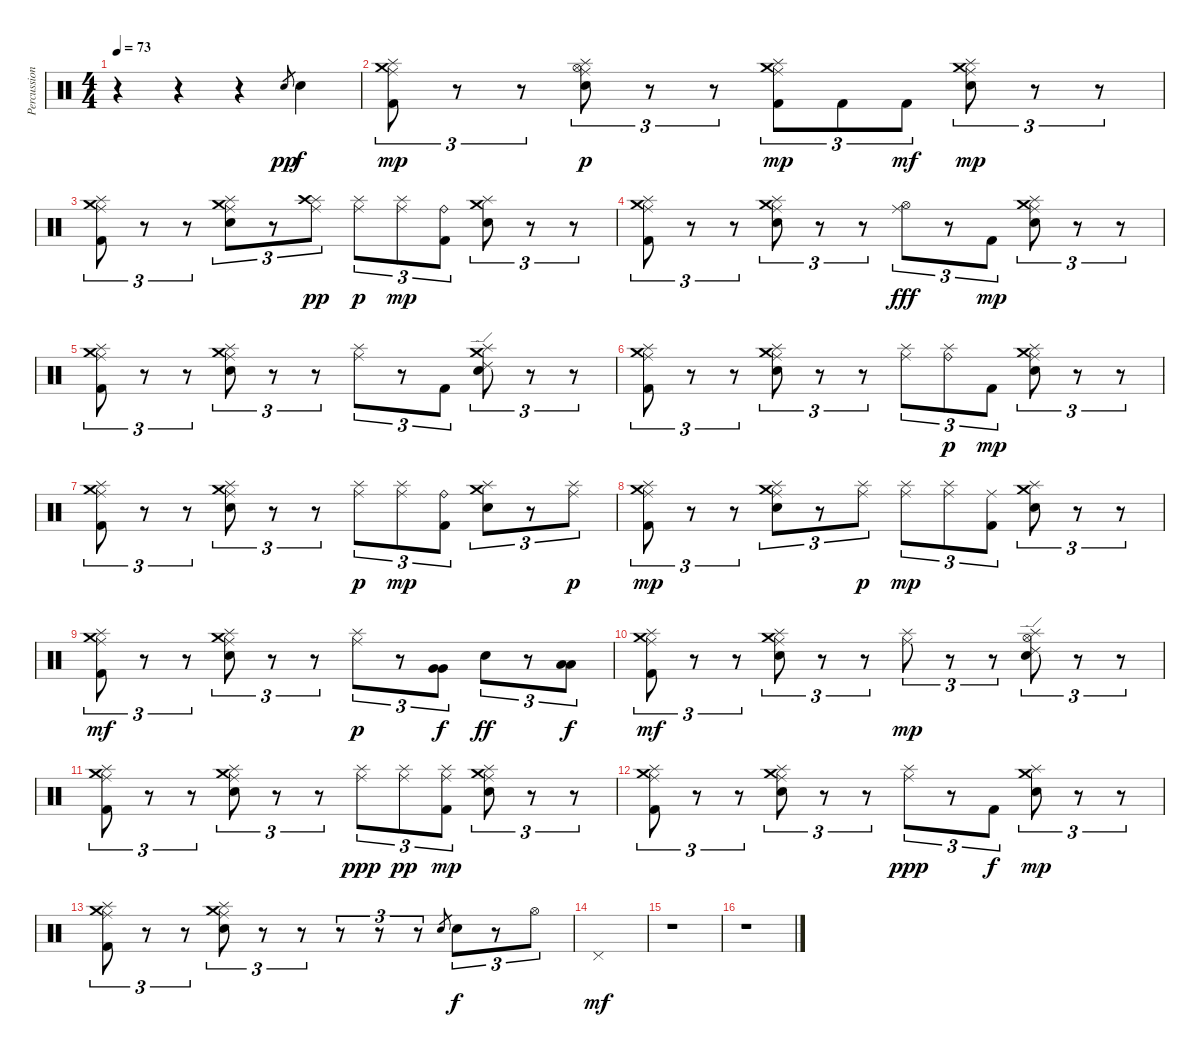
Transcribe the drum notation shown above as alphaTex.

\track ("Percussion" "Percussion") {instrument percussion}
\staff {score}
\articulation defaults
\ts (4 4)
\tempo 73
\clef neutral
\ks c
r.4{dy pp} r.4 r.4 "Snare (hit) 2".8{gr} "Electric Snare (hit)".4{dy f} |
("Splash (hit)" "Crash medium (hit)" "Kick (hit) 2" "Ride (middle)").8{tu (3 2) dy mp} r.8{tu (3 2)} r.8{tu (3 2)} ("Splash (hit)" "Hi-Hat (open)" "Electric Snare (hit)" "Ride (middle)").8{tu (3 2) dy p} r.8{tu (3 2)} r.8{tu (3 2)} ("Splash (hit)" "Crash medium (hit)" "Kick (hit) 2" "Ride (middle)").8{tu (3 2) dy mp} "Kick (hit) 2".8{tu (3 2)} "Kick (hit) 2".8{tu (3 2) dy mf} ("Splash (hit)" "Crash medium (hit)" "Electric Snare (hit)" "Ride (middle)").8{tu (3 2) dy mp} r.8{tu (3 2)} r.8{tu (3 2)} |
("Splash (hit)" "Crash medium (hit)" "Kick (hit) 2" "Ride (middle)").8{tu (3 2)} r.8{tu (3 2)} r.8{tu (3 2)} ("Splash (hit)" "Crash medium (hit)" "Electric Snare (hit)" "Ride (middle)").8{tu (3 2)} r.8{tu (3 2)} ("Ride (middle)" "Splash (hit)" "Crash high (hit)").8{tu (3 2) dy pp} ("Ride (middle)" "Splash (hit)").8{tu (3 2) dy p} ("Ride (middle)" "Splash (hit)").8{tu (3 2) dy mp} ("Ride (bell)" "Kick (hit) 2").8{tu (3 2)} ("Splash (hit)" "Crash medium (hit)" "Electric Snare (hit)").8{tu (3 2)} r.8{tu (3 2)} r.8{tu (3 2)} |
("Splash (hit)" "Crash medium (hit)" "Kick (hit) 2" "Ride (middle)").8{tu (3 2)} r.8{tu (3 2)} r.8{tu (3 2)} ("Splash (hit)" "Crash medium (hit)" "Electric Snare (hit)" "Ride (middle)").8{tu (3 2)} r.8{tu (3 2)} r.8{tu (3 2)} ("Ride (middle)" "Hi-Hat (open)").8{tu (3 2) dy fff} r.8{tu (3 2)} "Kick (hit) 2".8{tu (3 2) dy mp} ("Splash (hit)" "Crash medium (hit)" "Electric Snare (hit)" "Ride (middle)").8{tu (3 2)} r.8{tu (3 2)} r.8{tu (3 2)} |
("Splash (hit)" "Crash medium (hit)" "Kick (hit) 2" "Ride (middle)").8{tu (3 2)} r.8{tu (3 2)} r.8{tu (3 2)} ("Splash (hit)" "Crash medium (hit)" "Electric Snare (hit)" "Ride (middle)").8{tu (3 2)} r.8{tu (3 2)} r.8{tu (3 2)} ("Ride (middle)" "Splash (hit)").8{tu (3 2)} r.8{tu (3 2)} "Kick (hit) 2".8{tu (3 2)} ("Splash (hit)" "Crash medium (hit)" "Electric Snare (hit)" "Ride (edge) 2").8{tu (3 2)} r.8{tu (3 2)} r.8{tu (3 2)} |
("Splash (hit)" "Crash medium (hit)" "Kick (hit) 2" "Ride (middle)").8{tu (3 2)} r.8{tu (3 2)} r.8{tu (3 2)} ("Splash (hit)" "Crash medium (hit)" "Electric Snare (hit)" "Ride (middle)").8{tu (3 2)} r.8{tu (3 2)} r.8{tu (3 2)} ("Ride (middle)" "Splash (hit)").8{tu (3 2)} ("Ride (bell)" "Splash (hit)").8{tu (3 2) dy p} "Kick (hit) 2".8{tu (3 2) dy mp} ("Splash (hit)" "Crash medium (hit)" "Electric Snare (hit)" "Ride (middle)").8{tu (3 2)} r.8{tu (3 2)} r.8{tu (3 2)} |
("Splash (hit)" "Crash medium (hit)" "Kick (hit) 2" "Ride (middle)").8{tu (3 2)} r.8{tu (3 2)} r.8{tu (3 2)} ("Splash (hit)" "Crash medium (hit)" "Electric Snare (hit)" "Ride (middle)").8{tu (3 2)} r.8{tu (3 2)} r.8{tu (3 2)} ("Ride (middle)" "Splash (hit)").8{tu (3 2) dy p} ("Ride (middle)" "Splash (hit)").8{tu (3 2) dy mp} ("Ride (bell)" "Kick (hit) 2").8{tu (3 2)} ("Splash (hit)" "Crash medium (hit)" "Electric Snare (hit)").8{tu (3 2)} r.8{tu (3 2)} ("Ride (middle)" "Splash (hit)").8{tu (3 2) dy p} |
("Splash (hit)" "Crash medium (hit)" "Kick (hit) 2" "Ride (middle)").8{tu (3 2) dy mp} r.8{tu (3 2)} r.8{tu (3 2)} ("Splash (hit)" "Crash medium (hit)" "Electric Snare (hit)" "Ride (middle)").8{tu (3 2)} r.8{tu (3 2)} ("Ride (middle)" "Splash (hit)").8{tu (3 2) dy p} ("Ride (middle)" "Splash (hit)").8{tu (3 2) dy mp} ("Ride (middle)" "Splash (hit)").8{tu (3 2)} ("Ride (middle)" "Kick (hit) 2").8{tu (3 2)} ("Splash (hit)" "Crash medium (hit)" "Electric Snare (hit)").8{tu (3 2)} r.8{tu (3 2)} r.8{tu (3 2)} |
("Splash (hit)" "Crash medium (hit)" "Kick (hit) 2" "Ride (middle)").8{tu (3 2) dy mf} r.8{tu (3 2)} r.8{tu (3 2)} ("Splash (hit)" "Crash medium (hit)" "Electric Snare (hit)" "Ride (middle)").8{tu (3 2)} r.8{tu (3 2)} r.8{tu (3 2)} ("Ride (middle)" "Splash (hit)").8{tu (3 2) dy p} r.8{tu (3 2)} ("Very Low Tom (hit)" "Very Low Tom (hit)").8{tu (3 2) dy f} "Electric Snare (hit)".8{tu (3 2) dy ff} r.8{tu (3 2)} ("Low Floor Tom (hit)" "Low Floor Tom (hit)").8{tu (3 2) dy f} |
("Splash (hit)" "Crash medium (hit)" "Kick (hit) 2" "Ride (middle)").8{tu (3 2) dy mf} r.8{tu (3 2)} r.8{tu (3 2)} ("Splash (hit)" "Crash medium (hit)" "Electric Snare (hit)" "Ride (middle)").8{tu (3 2)} r.8{tu (3 2)} r.8{tu (3 2)} ("Splash (hit)" "Ride (middle)").8{tu (3 2) dy mp} r.8{tu (3 2)} r.8{tu (3 2)} ("Splash (hit)" "Hi-Hat (open)" "Electric Snare (hit)" "Ride (edge) 2").8{tu (3 2)} r.8{tu (3 2)} r.8{tu (3 2)} |
("Splash (hit)" "Crash medium (hit)" "Kick (hit) 2" "Ride (middle)").8{tu (3 2)} r.8{tu (3 2)} r.8{tu (3 2)} ("Splash (hit)" "Crash medium (hit)" "Electric Snare (hit)" "Ride (middle)").8{tu (3 2)} r.8{tu (3 2)} r.8{tu (3 2)} ("Ride (middle)" "Splash (hit)").8{tu (3 2) dy ppp} ("Ride (middle)" "Splash (hit)").8{tu (3 2) dy pp} ("Ride (middle)" "Splash (hit)" "Kick (hit) 2").8{tu (3 2) dy mp} ("Splash (hit)" "Crash medium (hit)" "Electric Snare (hit)" "Ride (middle)").8{tu (3 2)} r.8{tu (3 2)} r.8{tu (3 2)} |
("Splash (hit)" "Crash medium (hit)" "Kick (hit) 2" "Ride (middle)").8{tu (3 2)} r.8{tu (3 2)} r.8{tu (3 2)} ("Splash (hit)" "Crash medium (hit)" "Electric Snare (hit)" "Ride (middle)").8{tu (3 2)} r.8{tu (3 2)} r.8{tu (3 2)} ("Ride (middle)" "Splash (hit)").8{tu (3 2) dy ppp} r.8{tu (3 2)} "Kick (hit) 2".8{tu (3 2) dy f} ("Splash (hit)" "Crash medium (hit)" "Electric Snare (hit)").8{tu (3 2) dy mp} r.8{tu (3 2)} r.8{tu (3 2)} |
("Splash (hit)" "Crash medium (hit)" "Kick (hit) 2" "Ride (middle)").8{tu (3 2)} r.8{tu (3 2)} r.8{tu (3 2)} ("Splash (hit)" "Crash medium (hit)" "Electric Snare (hit)" "Ride (middle)").8{tu (3 2)} r.8{tu (3 2)} r.8{tu (3 2)} r.8{tu (3 2)} r.8{tu (3 2)} r.8{tu (3 2)} "Electric Snare (hit)".8{gr} "Electric Snare (hit)".8{tu (3 2) dy f} r.8{tu (3 2)} "Hi-Hat (open)".8{tu (3 2)} |
"Pedal Hi-Hat (hit)".1{dy mf} |
r.1 |
r.1
